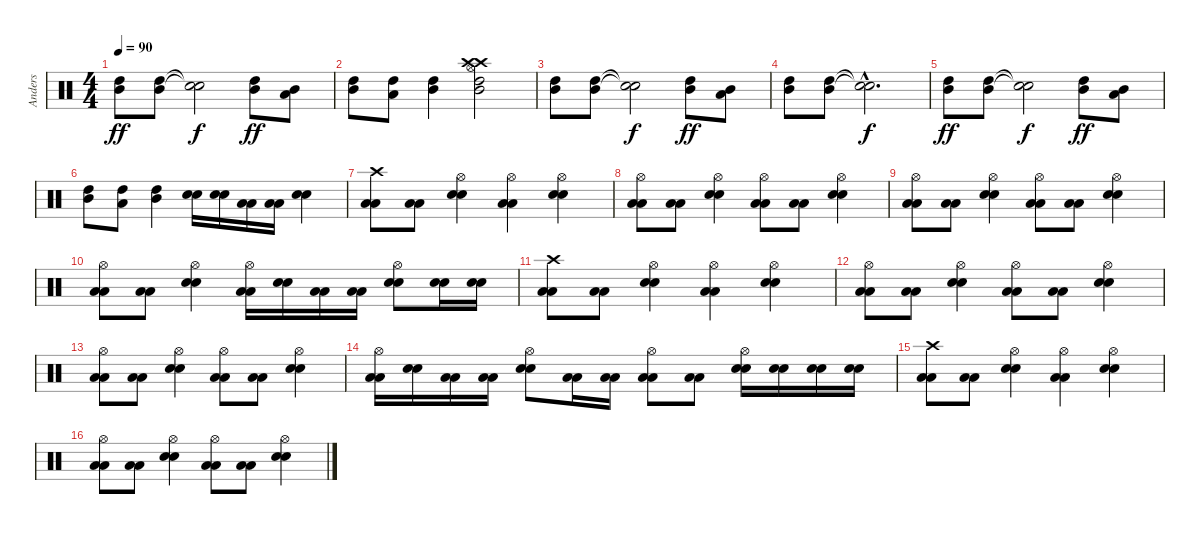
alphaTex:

\track ("Anders" "Anders") {instrument percussion}
\staff {score}
\articulation defaults
\ts (4 4)
\tempo 90
\clef neutral
\ks c
("Mid Tom (hit)" "High Tom (hit)").8{dy ff} ("Mid Tom (hit)" "High Tom (hit)").8 ("Snare (hit)"{t} "Snare (hit)"{t}).2{dy f} ("Mid Tom (hit)" "High Tom (hit)").8{dy ff} ("Mid Tom (hit)" "Low Tom (hit)").8 |
("High Tom (hit)" "Mid Tom (hit)").8 ("High Tom (hit)" "Low Tom (hit)").8 ("High Tom (hit)" "Mid Tom (hit)").4 ("Crash high (hit)" "Crash high (hit)" "High Tom (hit)" "Mid Tom (hit)" "Hi-Hat (open)").2 |
("Mid Tom (hit)" "High Tom (hit)").8 ("Mid Tom (hit)" "High Tom (hit)").8 ("Snare (hit)"{t} "Snare (hit)"{t}).2{dy f} ("Mid Tom (hit)" "High Tom (hit)").8{dy ff} ("Mid Tom (hit)" "Low Tom (hit)").8 |
("Mid Tom (hit)" "High Tom (hit)").8 ("Mid Tom (hit)" "High Tom (hit)").8 ("Snare (hit)"{hac t} "Snare (hit)"{hac t}).2{d dy f} |
("Mid Tom (hit)" "High Tom (hit)").8{dy ff} ("Mid Tom (hit)" "High Tom (hit)").8 ("Snare (hit)"{t} "Snare (hit)"{t}).2{dy f} ("Mid Tom (hit)" "High Tom (hit)").8{dy ff} ("Mid Tom (hit)" "Low Tom (hit)").8 |
("High Tom (hit)" "Mid Tom (hit)").8 ("High Tom (hit)" "Low Tom (hit)").8 ("High Tom (hit)" "Mid Tom (hit)").4 ("Electric Snare (hit)" "Electric Snare (hit)").16 ("Electric Snare (hit)" "Electric Snare (hit)").16 ("Low Tom (hit)" "Low Tom (hit)").16 ("Low Tom (hit)" "Low Tom (hit)").16 ("Electric Snare (hit)" "Electric Snare (hit)").4 |
("Crash high (hit)" "Low Floor Tom (hit)" "Low Floor Tom (hit)").8 ("Low Floor Tom (hit)" "Low Floor Tom (hit)").8 ("Hi-Hat (open)" "Electric Snare (hit)" "Electric Snare (hit)").4 ("Hi-Hat (open)" "Low Floor Tom (hit)" "Low Floor Tom (hit)").4 ("Hi-Hat (open)" "Electric Snare (hit)" "Electric Snare (hit)").4 |
("Hi-Hat (open)" "Low Floor Tom (hit)" "Low Floor Tom (hit)").8 ("Low Floor Tom (hit)" "Low Floor Tom (hit)").8 ("Hi-Hat (open)" "Electric Snare (hit)" "Electric Snare (hit)").4 ("Hi-Hat (open)" "Low Floor Tom (hit)" "Low Floor Tom (hit)").8 ("Low Floor Tom (hit)" "Low Floor Tom (hit)").8 ("Hi-Hat (open)" "Electric Snare (hit)" "Electric Snare (hit)").4 |
("Hi-Hat (open)" "Low Floor Tom (hit)" "Low Floor Tom (hit)").8 ("Low Floor Tom (hit)" "Low Floor Tom (hit)").8 ("Hi-Hat (open)" "Electric Snare (hit)" "Electric Snare (hit)").4 ("Hi-Hat (open)" "Low Floor Tom (hit)" "Low Floor Tom (hit)").8 ("Low Floor Tom (hit)" "Low Floor Tom (hit)").8 ("Hi-Hat (open)" "Electric Snare (hit)" "Electric Snare (hit)").4 |
("Hi-Hat (open)" "Low Floor Tom (hit)" "Low Floor Tom (hit)").8 ("Low Floor Tom (hit)" "Low Floor Tom (hit)").8 ("Hi-Hat (open)" "Electric Snare (hit)" "Electric Snare (hit)").4 ("Hi-Hat (open)" "Low Floor Tom (hit)" "Low Floor Tom (hit)").16 ("Electric Snare (hit)" "Electric Snare (hit)").16 ("Low Floor Tom (hit)" "Low Floor Tom (hit)").16 ("Low Floor Tom (hit)" "Low Floor Tom (hit)").16 ("Hi-Hat (open)" "Electric Snare (hit)" "Electric Snare (hit)").8 ("Electric Snare (hit)" "Electric Snare (hit)").16 ("Electric Snare (hit)" "Electric Snare (hit)").16 |
("Crash high (hit)" "Low Floor Tom (hit)" "Low Floor Tom (hit)").8 ("Low Floor Tom (hit)" "Low Floor Tom (hit)").8 ("Hi-Hat (open)" "Electric Snare (hit)" "Electric Snare (hit)").4 ("Hi-Hat (open)" "Low Floor Tom (hit)" "Low Floor Tom (hit)").4 ("Hi-Hat (open)" "Electric Snare (hit)" "Electric Snare (hit)").4 |
("Hi-Hat (open)" "Low Floor Tom (hit)" "Low Floor Tom (hit)").8 ("Low Floor Tom (hit)" "Low Floor Tom (hit)").8 ("Hi-Hat (open)" "Electric Snare (hit)" "Electric Snare (hit)").4 ("Hi-Hat (open)" "Low Floor Tom (hit)" "Low Floor Tom (hit)").8 ("Low Floor Tom (hit)" "Low Floor Tom (hit)").8 ("Hi-Hat (open)" "Electric Snare (hit)" "Electric Snare (hit)").4 |
("Hi-Hat (open)" "Low Floor Tom (hit)" "Low Floor Tom (hit)").8 ("Low Floor Tom (hit)" "Low Floor Tom (hit)").8 ("Hi-Hat (open)" "Electric Snare (hit)" "Electric Snare (hit)").4 ("Hi-Hat (open)" "Low Floor Tom (hit)" "Low Floor Tom (hit)").8 ("Low Floor Tom (hit)" "Low Floor Tom (hit)").8 ("Hi-Hat (open)" "Electric Snare (hit)" "Electric Snare (hit)").4 |
("Hi-Hat (open)" "Low Floor Tom (hit)" "Low Floor Tom (hit)").16 ("Electric Snare (hit)" "Electric Snare (hit)").16 ("Low Floor Tom (hit)" "Low Floor Tom (hit)").16 ("Low Floor Tom (hit)" "Low Floor Tom (hit)").16 ("Hi-Hat (open)" "Electric Snare (hit)" "Electric Snare (hit)").8 ("Low Floor Tom (hit)" "Low Floor Tom (hit)").16 ("Low Floor Tom (hit)" "Low Floor Tom (hit)").16 ("Hi-Hat (open)" "Low Floor Tom (hit)" "Low Floor Tom (hit)").8 ("Low Floor Tom (hit)" "Low Floor Tom (hit)").8 ("Hi-Hat (open)" "Electric Snare (hit)" "Electric Snare (hit)").16 ("Electric Snare (hit)" "Electric Snare (hit)").16 ("Electric Snare (hit)" "Electric Snare (hit)").16 ("Electric Snare (hit)" "Electric Snare (hit)").16 |
("Crash high (hit)" "Low Floor Tom (hit)" "Low Floor Tom (hit)").8 ("Low Floor Tom (hit)" "Low Floor Tom (hit)").8 ("Hi-Hat (open)" "Electric Snare (hit)" "Electric Snare (hit)").4 ("Hi-Hat (open)" "Low Floor Tom (hit)" "Low Floor Tom (hit)").4 ("Hi-Hat (open)" "Electric Snare (hit)" "Electric Snare (hit)").4 |
("Hi-Hat (open)" "Low Floor Tom (hit)" "Low Floor Tom (hit)").8 ("Low Floor Tom (hit)" "Low Floor Tom (hit)").8 ("Hi-Hat (open)" "Electric Snare (hit)" "Electric Snare (hit)").4 ("Hi-Hat (open)" "Low Floor Tom (hit)" "Low Floor Tom (hit)").8 ("Low Floor Tom (hit)" "Low Floor Tom (hit)").8 ("Hi-Hat (open)" "Electric Snare (hit)" "Electric Snare (hit)").4
